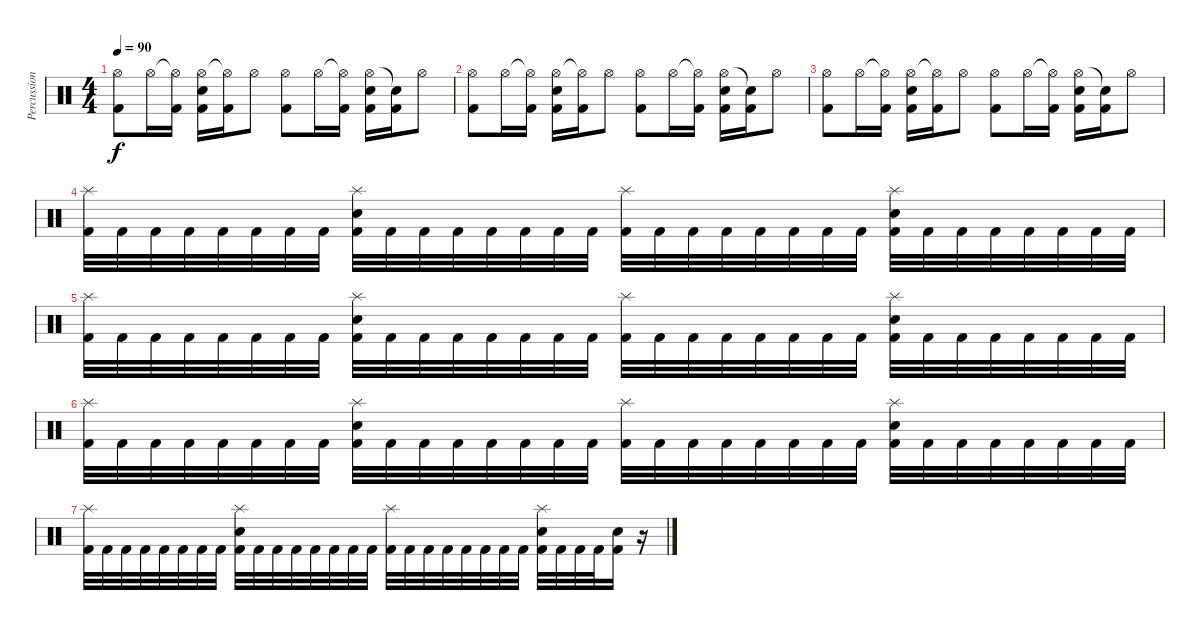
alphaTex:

\track ("Percussions" "Percussion") {instrument percussion}
\staff {score}
\articulation defaults
\ts (4 4)
\tempo 90
\clef neutral
\ks c
("Hi-Hat (open)" "Kick (hit) 2").8{dy f} "Hi-Hat (open)".16 ("Hi-Hat (open)"{t} "Kick (hit) 2").16 ("Hi-Hat (open)" "Electric Snare (hit)" "Kick (hit) 2").16 ("Hi-Hat (open)"{t} "Kick (hit) 2").16 "Hi-Hat (open)".8 ("Hi-Hat (open)" "Kick (hit) 2").8 "Hi-Hat (open)".16 ("Hi-Hat (open)"{t} "Kick (hit) 2").16 ("Hi-Hat (open)" "Electric Snare (hit)" "Kick (hit) 2").16 ("Snare (hit)"{t} "Kick (hit) 2").16 "Hi-Hat (open)".8 |
("Hi-Hat (open)" "Kick (hit) 2").8 "Hi-Hat (open)".16 ("Hi-Hat (open)"{t} "Kick (hit) 2").16 ("Hi-Hat (open)" "Electric Snare (hit)" "Kick (hit) 2").16 ("Hi-Hat (open)"{t} "Kick (hit) 2").16 "Hi-Hat (open)".8 ("Hi-Hat (open)" "Kick (hit) 2").8 "Hi-Hat (open)".16 ("Hi-Hat (open)"{t} "Kick (hit) 2").16 ("Hi-Hat (open)" "Electric Snare (hit)" "Kick (hit) 2").16 ("Snare (hit)"{t} "Kick (hit) 2").16 "Hi-Hat (open)".8 |
("Hi-Hat (open)" "Kick (hit) 2").8 "Hi-Hat (open)".16 ("Hi-Hat (open)"{t} "Kick (hit) 2").16 ("Hi-Hat (open)" "Electric Snare (hit)" "Kick (hit) 2").16 ("Hi-Hat (open)"{t} "Kick (hit) 2").16 "Hi-Hat (open)".8 ("Hi-Hat (open)" "Kick (hit) 2").8 "Hi-Hat (open)".16 ("Hi-Hat (open)"{t} "Kick (hit) 2").16 ("Hi-Hat (open)" "Electric Snare (hit)" "Kick (hit) 2").16 ("Snare (hit)"{t} "Kick (hit) 2").16 "Hi-Hat (open)".8 |
("Splash (hit)" "Kick (hit) 2").32 "Kick (hit) 2".32 "Kick (hit) 2".32 "Kick (hit) 2".32 "Kick (hit) 2".32 "Kick (hit) 2".32 "Kick (hit) 2".32 "Kick (hit) 2".32 ("Splash (hit)" "Electric Snare (hit)" "Kick (hit) 2").32 "Kick (hit) 2".32 "Kick (hit) 2".32 "Kick (hit) 2".32 "Kick (hit) 2".32 "Kick (hit) 2".32 "Kick (hit) 2".32 "Kick (hit) 2".32 ("Splash (hit)" "Kick (hit) 2").32 "Kick (hit) 2".32 "Kick (hit) 2".32 "Kick (hit) 2".32 "Kick (hit) 2".32 "Kick (hit) 2".32 "Kick (hit) 2".32 "Kick (hit) 2".32 ("Splash (hit)" "Electric Snare (hit)" "Kick (hit) 2").32 "Kick (hit) 2".32 "Kick (hit) 2".32 "Kick (hit) 2".32 "Kick (hit) 2".32 "Kick (hit) 2".32 "Kick (hit) 2".32 "Kick (hit) 2".32 |
("Splash (hit)" "Kick (hit) 2").32 "Kick (hit) 2".32 "Kick (hit) 2".32 "Kick (hit) 2".32 "Kick (hit) 2".32 "Kick (hit) 2".32 "Kick (hit) 2".32 "Kick (hit) 2".32 ("Splash (hit)" "Electric Snare (hit)" "Kick (hit) 2").32 "Kick (hit) 2".32 "Kick (hit) 2".32 "Kick (hit) 2".32 "Kick (hit) 2".32 "Kick (hit) 2".32 "Kick (hit) 2".32 "Kick (hit) 2".32 ("Splash (hit)" "Kick (hit) 2").32 "Kick (hit) 2".32 "Kick (hit) 2".32 "Kick (hit) 2".32 "Kick (hit) 2".32 "Kick (hit) 2".32 "Kick (hit) 2".32 "Kick (hit) 2".32 ("Splash (hit)" "Electric Snare (hit)" "Kick (hit) 2").32 "Kick (hit) 2".32 "Kick (hit) 2".32 "Kick (hit) 2".32 "Kick (hit) 2".32 "Kick (hit) 2".32 "Kick (hit) 2".32 "Kick (hit) 2".32 |
("Splash (hit)" "Kick (hit) 2").32 "Kick (hit) 2".32 "Kick (hit) 2".32 "Kick (hit) 2".32 "Kick (hit) 2".32 "Kick (hit) 2".32 "Kick (hit) 2".32 "Kick (hit) 2".32 ("Splash (hit)" "Electric Snare (hit)" "Kick (hit) 2").32 "Kick (hit) 2".32 "Kick (hit) 2".32 "Kick (hit) 2".32 "Kick (hit) 2".32 "Kick (hit) 2".32 "Kick (hit) 2".32 "Kick (hit) 2".32 ("Splash (hit)" "Kick (hit) 2").32 "Kick (hit) 2".32 "Kick (hit) 2".32 "Kick (hit) 2".32 "Kick (hit) 2".32 "Kick (hit) 2".32 "Kick (hit) 2".32 "Kick (hit) 2".32 ("Splash (hit)" "Electric Snare (hit)" "Kick (hit) 2").32 "Kick (hit) 2".32 "Kick (hit) 2".32 "Kick (hit) 2".32 "Kick (hit) 2".32 "Kick (hit) 2".32 "Kick (hit) 2".32 "Kick (hit) 2".32 |
("Splash (hit)" "Kick (hit) 2").32 "Kick (hit) 2".32 "Kick (hit) 2".32 "Kick (hit) 2".32 "Kick (hit) 2".32 "Kick (hit) 2".32 "Kick (hit) 2".32 "Kick (hit) 2".32 ("Splash (hit)" "Electric Snare (hit)" "Kick (hit) 2").32 "Kick (hit) 2".32 "Kick (hit) 2".32 "Kick (hit) 2".32 "Kick (hit) 2".32 "Kick (hit) 2".32 "Kick (hit) 2".32 "Kick (hit) 2".32 ("Splash (hit)" "Kick (hit) 2").32 "Kick (hit) 2".32 "Kick (hit) 2".32 "Kick (hit) 2".32 "Kick (hit) 2".32 "Kick (hit) 2".32 "Kick (hit) 2".32 "Kick (hit) 2".32 ("Splash (hit)" "Electric Snare (hit)" "Kick (hit) 2").32 "Kick (hit) 2".32 "Kick (hit) 2".32 "Kick (hit) 2".32 ("Electric Snare (hit)" "Kick (hit) 2").16 r.16
